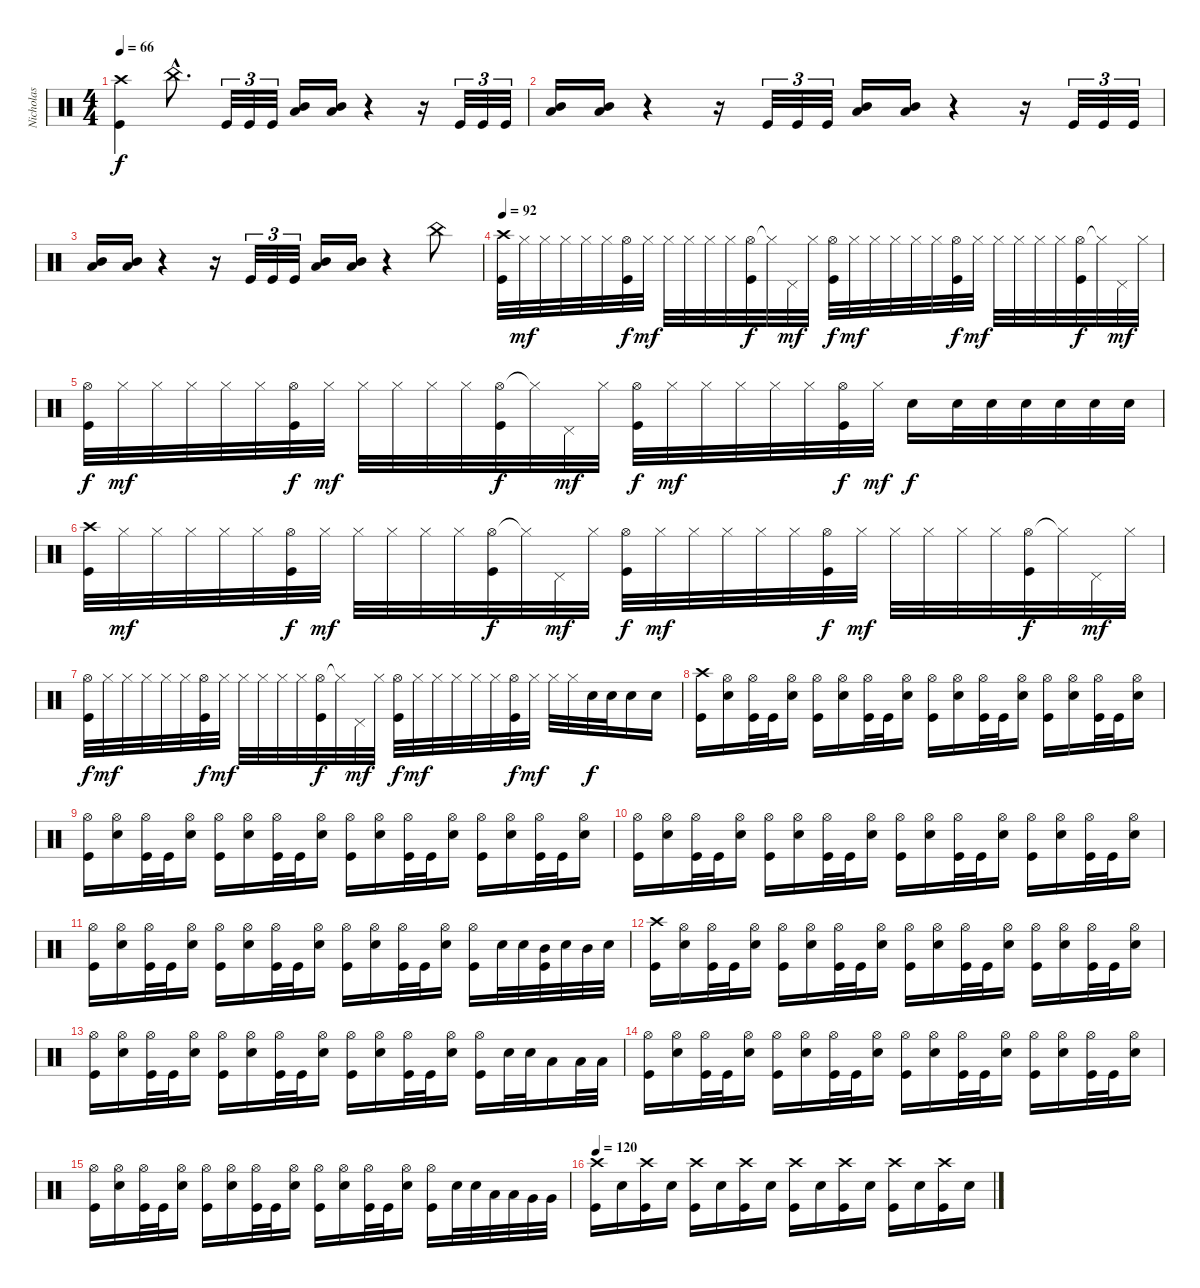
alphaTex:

\track ("Nicholas" "Nicholas") {instrument percussion}
\staff {score}
\articulation defaults
\ts (4 4)
\tempo 66
\clef neutral
\ks c
("Crash high (hit)" "Kick (hit)").4{dy f} "China (hit)"{hac}.8{d} "Kick (hit)".32{tu (3 2)} "Kick (hit)".32{tu (3 2)} "Kick (hit)".32{tu (3 2)} ("Mid Tom (hit)" "Low Tom (hit)").16{bu 60} ("Mid Tom (hit)" "Low Tom (hit)").16{bu 60} r.4 r.16 "Kick (hit)".32{tu (3 2)} "Kick (hit)".32{tu (3 2)} "Kick (hit)".32{tu (3 2)} |
("Mid Tom (hit)" "Low Tom (hit)").16{bu 60} ("Mid Tom (hit)" "Low Tom (hit)").16{bu 60} r.4 r.16 "Kick (hit)".32{tu (3 2)} "Kick (hit)".32{tu (3 2)} "Kick (hit)".32{tu (3 2)} ("Mid Tom (hit)" "Low Tom (hit)").16{bu 60} ("Mid Tom (hit)" "Low Tom (hit)").16{bu 60} r.4 r.16 "Kick (hit)".32{tu (3 2)} "Kick (hit)".32{tu (3 2)} "Kick (hit)".32{tu (3 2)} |
("Mid Tom (hit)" "Low Tom (hit)").16{bu 60} ("Mid Tom (hit)" "Low Tom (hit)").16{bu 60} r.4 r.16 "Kick (hit)".32{tu (3 2)} "Kick (hit)".32{tu (3 2)} "Kick (hit)".32{tu (3 2)} ("Mid Tom (hit)" "Low Tom (hit)").16{bu 60} ("Mid Tom (hit)" "Low Tom (hit)").16{bu 60} r.4 "China (hit)".8 |
\tempo 92
("Crash high (hit)" "Kick (hit)").32 "Hi-Hat (closed)".32{dy mf} "Hi-Hat (closed)".32 "Hi-Hat (closed)".32 "Hi-Hat (closed)".32 "Hi-Hat (closed)".32 ("Hi-Hat (open)" "Kick (hit)").32{dy f} "Hi-Hat (closed)".32{dy mf} "Hi-Hat (closed)".32 "Hi-Hat (closed)".32 "Hi-Hat (closed)".32 "Hi-Hat (closed)".32 ("Hi-Hat (open)" "Kick (hit)").32{dy f} "Hi-Hat (closed)"{t}.32 "Pedal Hi-Hat (hit)".32{dy mf} "Hi-Hat (closed)".32 ("Hi-Hat (open)" "Kick (hit)").32{dy f} "Hi-Hat (closed)".32{dy mf} "Hi-Hat (closed)".32 "Hi-Hat (closed)".32 "Hi-Hat (closed)".32 "Hi-Hat (closed)".32 ("Hi-Hat (open)" "Kick (hit)").32{dy f} "Hi-Hat (closed)".32{dy mf} "Hi-Hat (closed)".32 "Hi-Hat (closed)".32 "Hi-Hat (closed)".32 "Hi-Hat (closed)".32 ("Hi-Hat (open)" "Kick (hit)").32{dy f} "Hi-Hat (closed)"{t}.32 "Pedal Hi-Hat (hit)".32{dy mf} "Hi-Hat (closed)".32 |
("Hi-Hat (open)" "Kick (hit)").32{dy f} "Hi-Hat (closed)".32{dy mf} "Hi-Hat (closed)".32 "Hi-Hat (closed)".32 "Hi-Hat (closed)".32 "Hi-Hat (closed)".32 ("Hi-Hat (open)" "Kick (hit)").32{dy f} "Hi-Hat (closed)".32{dy mf} "Hi-Hat (closed)".32 "Hi-Hat (closed)".32 "Hi-Hat (closed)".32 "Hi-Hat (closed)".32 ("Hi-Hat (open)" "Kick (hit)").32{dy f} "Hi-Hat (closed)"{t}.32 "Pedal Hi-Hat (hit)".32{dy mf} "Hi-Hat (closed)".32 ("Hi-Hat (open)" "Kick (hit)").32{dy f} "Hi-Hat (closed)".32{dy mf} "Hi-Hat (closed)".32 "Hi-Hat (closed)".32 "Hi-Hat (closed)".32 "Hi-Hat (closed)".32 ("Hi-Hat (open)" "Kick (hit)").32{dy f} "Hi-Hat (closed)".32{dy mf} "Electric Snare (hit)".16{dy f} "Electric Snare (hit)".32 "Electric Snare (hit)".32 "Electric Snare (hit)".32 "Electric Snare (hit)".32 "Electric Snare (hit)".32 "Electric Snare (hit)".32 |
("Crash high (hit)" "Kick (hit)").32 "Hi-Hat (closed)".32{dy mf} "Hi-Hat (closed)".32 "Hi-Hat (closed)".32 "Hi-Hat (closed)".32 "Hi-Hat (closed)".32 ("Hi-Hat (open)" "Kick (hit)").32{dy f} "Hi-Hat (closed)".32{dy mf} "Hi-Hat (closed)".32 "Hi-Hat (closed)".32 "Hi-Hat (closed)".32 "Hi-Hat (closed)".32 ("Hi-Hat (open)" "Kick (hit)").32{dy f} "Hi-Hat (closed)"{t}.32 "Pedal Hi-Hat (hit)".32{dy mf} "Hi-Hat (closed)".32 ("Hi-Hat (open)" "Kick (hit)").32{dy f} "Hi-Hat (closed)".32{dy mf} "Hi-Hat (closed)".32 "Hi-Hat (closed)".32 "Hi-Hat (closed)".32 "Hi-Hat (closed)".32 ("Hi-Hat (open)" "Kick (hit)").32{dy f} "Hi-Hat (closed)".32{dy mf} "Hi-Hat (closed)".32 "Hi-Hat (closed)".32 "Hi-Hat (closed)".32 "Hi-Hat (closed)".32 ("Hi-Hat (open)" "Kick (hit)").32{dy f} "Hi-Hat (closed)"{t}.32 "Pedal Hi-Hat (hit)".32{dy mf} "Hi-Hat (closed)".32 |
("Hi-Hat (open)" "Kick (hit)").32{dy f} "Hi-Hat (closed)".32{dy mf} "Hi-Hat (closed)".32 "Hi-Hat (closed)".32 "Hi-Hat (closed)".32 "Hi-Hat (closed)".32 ("Hi-Hat (open)" "Kick (hit)").32{dy f} "Hi-Hat (closed)".32{dy mf} "Hi-Hat (closed)".32 "Hi-Hat (closed)".32 "Hi-Hat (closed)".32 "Hi-Hat (closed)".32 ("Hi-Hat (open)" "Kick (hit)").32{dy f} "Hi-Hat (closed)"{t}.32 "Pedal Hi-Hat (hit)".32{dy mf} "Hi-Hat (closed)".32 ("Hi-Hat (open)" "Kick (hit)").32{dy f} "Hi-Hat (closed)".32{dy mf} "Hi-Hat (closed)".32 "Hi-Hat (closed)".32 "Hi-Hat (closed)".32 "Hi-Hat (closed)".32 ("Hi-Hat (open)" "Kick (hit)").32{dy f} "Hi-Hat (closed)".32{dy mf} "Hi-Hat (closed)".32 "Hi-Hat (closed)".32 "Electric Snare (hit)".32{dy f} "Electric Snare (hit)".32 "Electric Snare (hit)".16 "Electric Snare (hit)".16 |
("Crash high (hit)" "Kick (hit)").16 ("Hi-Hat (open)" "Electric Snare (hit)").16 ("Hi-Hat (open)" "Kick (hit)").32 "Kick (hit)".32 ("Hi-Hat (open)" "Electric Snare (hit)").16 ("Hi-Hat (open)" "Kick (hit)").16 ("Hi-Hat (open)" "Electric Snare (hit)").16 ("Hi-Hat (open)" "Kick (hit)").32 "Kick (hit)".32 ("Hi-Hat (open)" "Electric Snare (hit)").16 ("Hi-Hat (open)" "Kick (hit)").16 ("Hi-Hat (open)" "Electric Snare (hit)").16 ("Hi-Hat (open)" "Kick (hit)").32 "Kick (hit)".32 ("Hi-Hat (open)" "Electric Snare (hit)").16 ("Hi-Hat (open)" "Kick (hit)").16 ("Hi-Hat (open)" "Electric Snare (hit)").16 ("Hi-Hat (open)" "Kick (hit)").32 "Kick (hit)".32 ("Hi-Hat (open)" "Electric Snare (hit)").16 |
("Hi-Hat (open)" "Kick (hit)").16 ("Hi-Hat (open)" "Electric Snare (hit)").16 ("Hi-Hat (open)" "Kick (hit)").32 "Kick (hit)".32 ("Hi-Hat (open)" "Electric Snare (hit)").16 ("Hi-Hat (open)" "Kick (hit)").16 ("Hi-Hat (open)" "Electric Snare (hit)").16 ("Hi-Hat (open)" "Kick (hit)").32 "Kick (hit)".32 ("Hi-Hat (open)" "Electric Snare (hit)").16 ("Hi-Hat (open)" "Kick (hit)").16 ("Hi-Hat (open)" "Electric Snare (hit)").16 ("Hi-Hat (open)" "Kick (hit)").32 "Kick (hit)".32 ("Hi-Hat (open)" "Electric Snare (hit)").16 ("Hi-Hat (open)" "Kick (hit)").16 ("Hi-Hat (open)" "Electric Snare (hit)").16 ("Hi-Hat (open)" "Kick (hit)").32 "Kick (hit)".32 ("Hi-Hat (open)" "Electric Snare (hit)").16 |
("Hi-Hat (open)" "Kick (hit)").16 ("Hi-Hat (open)" "Electric Snare (hit)").16 ("Hi-Hat (open)" "Kick (hit)").32 "Kick (hit)".32 ("Hi-Hat (open)" "Electric Snare (hit)").16 ("Hi-Hat (open)" "Kick (hit)").16 ("Hi-Hat (open)" "Electric Snare (hit)").16 ("Hi-Hat (open)" "Kick (hit)").32 "Kick (hit)".32 ("Hi-Hat (open)" "Electric Snare (hit)").16 ("Hi-Hat (open)" "Kick (hit)").16 ("Hi-Hat (open)" "Electric Snare (hit)").16 ("Hi-Hat (open)" "Kick (hit)").32 "Kick (hit)".32 ("Hi-Hat (open)" "Electric Snare (hit)").16 ("Hi-Hat (open)" "Kick (hit)").16 ("Hi-Hat (open)" "Electric Snare (hit)").16 ("Hi-Hat (open)" "Kick (hit)").32 "Kick (hit)".32 ("Hi-Hat (open)" "Electric Snare (hit)").16 |
("Hi-Hat (open)" "Kick (hit)").16 ("Hi-Hat (open)" "Electric Snare (hit)").16 ("Hi-Hat (open)" "Kick (hit)").32 "Kick (hit)".32 ("Hi-Hat (open)" "Electric Snare (hit)").16 ("Hi-Hat (open)" "Kick (hit)").16 ("Hi-Hat (open)" "Electric Snare (hit)").16 ("Hi-Hat (open)" "Kick (hit)").32 "Kick (hit)".32 ("Hi-Hat (open)" "Electric Snare (hit)").16 ("Hi-Hat (open)" "Kick (hit)").16 ("Hi-Hat (open)" "Electric Snare (hit)").16 ("Hi-Hat (open)" "Kick (hit)").32 "Kick (hit)".32 ("Hi-Hat (open)" "Electric Snare (hit)").16 ("Hi-Hat (open)" "Kick (hit)").16 "Electric Snare (hit)".32 "Electric Snare (hit)".32 ("Mid Tom (hit)" "Kick (hit)").32 "Electric Snare (hit)".32 "Mid Tom (hit)".32 "Electric Snare (hit)".32 |
("Crash high (hit)" "Kick (hit)").16 ("Hi-Hat (open)" "Electric Snare (hit)").16 ("Hi-Hat (open)" "Kick (hit)").32 "Kick (hit)".32 ("Hi-Hat (open)" "Electric Snare (hit)").16 ("Hi-Hat (open)" "Kick (hit)").16 ("Hi-Hat (open)" "Electric Snare (hit)").16 ("Hi-Hat (open)" "Kick (hit)").32 "Kick (hit)".32 ("Hi-Hat (open)" "Electric Snare (hit)").16 ("Hi-Hat (open)" "Kick (hit)").16 ("Hi-Hat (open)" "Electric Snare (hit)").16 ("Hi-Hat (open)" "Kick (hit)").32 "Kick (hit)".32 ("Hi-Hat (open)" "Electric Snare (hit)").16 ("Hi-Hat (open)" "Kick (hit)").16 ("Hi-Hat (open)" "Electric Snare (hit)").16 ("Hi-Hat (open)" "Kick (hit)").32 "Kick (hit)".32 ("Hi-Hat (open)" "Electric Snare (hit)").16 |
("Hi-Hat (open)" "Kick (hit)").16 ("Hi-Hat (open)" "Electric Snare (hit)").16 ("Hi-Hat (open)" "Kick (hit)").32 "Kick (hit)".32 ("Hi-Hat (open)" "Electric Snare (hit)").16 ("Hi-Hat (open)" "Kick (hit)").16 ("Hi-Hat (open)" "Electric Snare (hit)").16 ("Hi-Hat (open)" "Kick (hit)").32 "Kick (hit)".32 ("Hi-Hat (open)" "Electric Snare (hit)").16 ("Hi-Hat (open)" "Kick (hit)").16 ("Hi-Hat (open)" "Electric Snare (hit)").16 ("Hi-Hat (open)" "Kick (hit)").32 "Kick (hit)".32 ("Hi-Hat (open)" "Electric Snare (hit)").16 ("Hi-Hat (open)" "Kick (hit)").16 "Electric Snare (hit)".32 "Electric Snare (hit)".32 "Low Tom (hit)".16 "Low Tom (hit)".32 "Low Tom (hit)".32 |
("Hi-Hat (open)" "Kick (hit)").16 ("Hi-Hat (open)" "Electric Snare (hit)").16 ("Hi-Hat (open)" "Kick (hit)").32 "Kick (hit)".32 ("Hi-Hat (open)" "Electric Snare (hit)").16 ("Hi-Hat (open)" "Kick (hit)").16 ("Hi-Hat (open)" "Electric Snare (hit)").16 ("Hi-Hat (open)" "Kick (hit)").32 "Kick (hit)".32 ("Hi-Hat (open)" "Electric Snare (hit)").16 ("Hi-Hat (open)" "Kick (hit)").16 ("Hi-Hat (open)" "Electric Snare (hit)").16 ("Hi-Hat (open)" "Kick (hit)").32 "Kick (hit)".32 ("Hi-Hat (open)" "Electric Snare (hit)").16 ("Hi-Hat (open)" "Kick (hit)").16 ("Hi-Hat (open)" "Electric Snare (hit)").16 ("Hi-Hat (open)" "Kick (hit)").32 "Kick (hit)".32 ("Hi-Hat (open)" "Electric Snare (hit)").16 |
("Hi-Hat (open)" "Kick (hit)").16 ("Hi-Hat (open)" "Electric Snare (hit)").16 ("Hi-Hat (open)" "Kick (hit)").32 "Kick (hit)".32 ("Hi-Hat (open)" "Electric Snare (hit)").16 ("Hi-Hat (open)" "Kick (hit)").16 ("Hi-Hat (open)" "Electric Snare (hit)").16 ("Hi-Hat (open)" "Kick (hit)").32 "Kick (hit)".32 ("Hi-Hat (open)" "Electric Snare (hit)").16 ("Hi-Hat (open)" "Kick (hit)").16 ("Hi-Hat (open)" "Electric Snare (hit)").16 ("Hi-Hat (open)" "Kick (hit)").32 "Kick (hit)".32 ("Hi-Hat (open)" "Electric Snare (hit)").16 ("Hi-Hat (open)" "Kick (hit)").16 "Electric Snare (hit)".32 "Electric Snare (hit)".32 "Low Tom (hit)".32 "Low Tom (hit)".32 "Very Low Tom (hit)".32 "Very Low Tom (hit)".32 |
\tempo 120
("Crash high (hit)" "Kick (hit)").16 "Electric Snare (hit)".16 ("Crash high (hit)" "Kick (hit)").16 "Electric Snare (hit)".16 ("Crash high (hit)" "Kick (hit)").16 "Electric Snare (hit)".16 ("Crash high (hit)" "Kick (hit)").16 "Electric Snare (hit)".16 ("Crash high (hit)" "Kick (hit)").16 "Electric Snare (hit)".16 ("Crash high (hit)" "Kick (hit)").16 "Electric Snare (hit)".16 ("Crash high (hit)" "Kick (hit)").16 "Electric Snare (hit)".16 ("Crash high (hit)" "Kick (hit)").16 "Electric Snare (hit)".16
